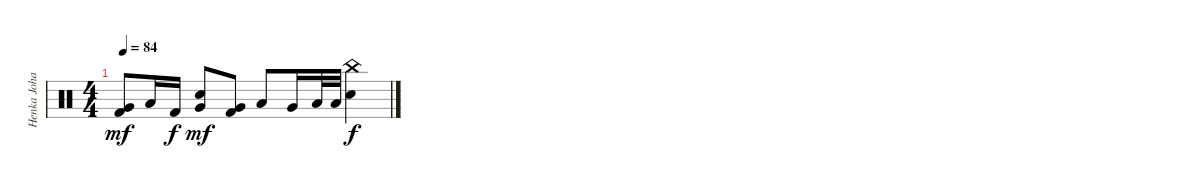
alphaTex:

\track ("Henka Johansson" "Henka Joha") {instrument percussion}
\staff {score}
\articulation defaults
\ts (4 4)
\tempo 84
\clef neutral
\ks c
("Very Low Tom (hit)" "Kick (hit) 2").8{dy mf} "Low Tom (hit)".16 "Kick (hit) 2".16{dy f} ("Very Low Tom (hit)" "Electric Snare (hit)").8{dy mf} ("Very Low Tom (hit)" "Kick (hit) 2").8 "Low Tom (hit)".8 "Very Low Tom (hit)".16 "Low Tom (hit)".32 "Low Tom (hit)".32 ("China (hit)" "Electric Snare (hit)").4{dy f}
